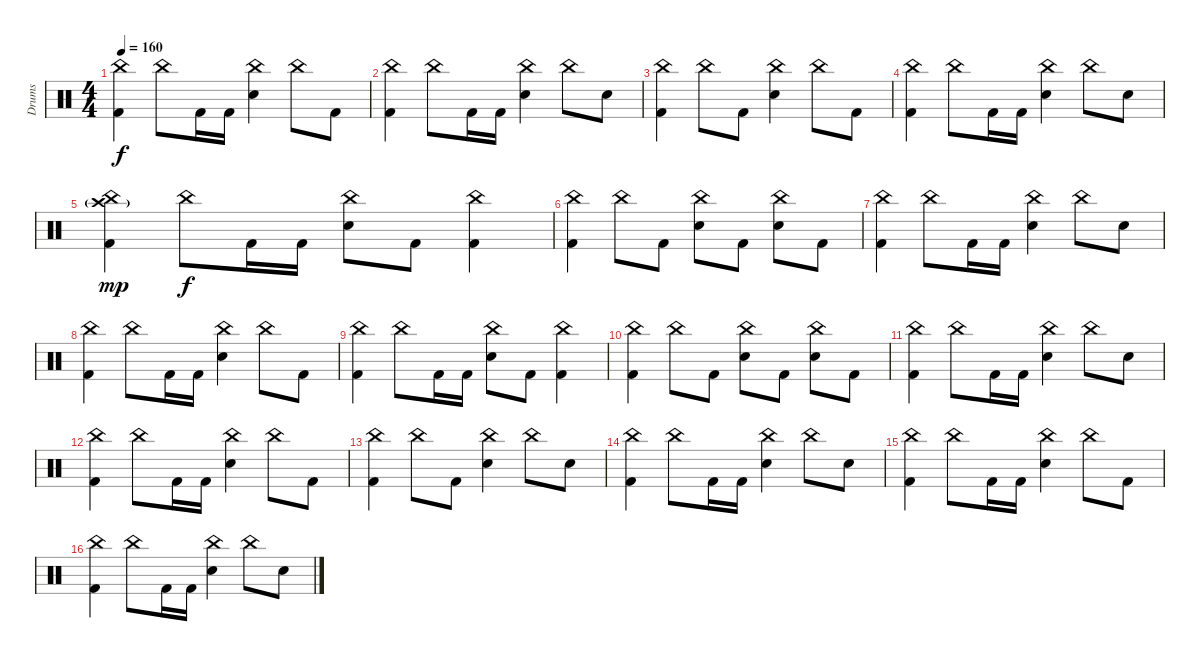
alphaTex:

\track ("Drums" "Drums") {instrument percussion}
\staff {score}
\articulation defaults
\ts (4 4)
\tempo 160
\clef neutral
\ks c
("China (hit)" "Kick (hit) 2").4{dy f} "China (hit)".8 "Kick (hit) 2".16 "Kick (hit) 2".16 ("China (hit)" "Electric Snare (hit)").4 "China (hit)".8 "Kick (hit) 2".8 |
("China (hit)" "Kick (hit) 2").4 "China (hit)".8 "Kick (hit) 2".16 "Kick (hit) 2".16 ("China (hit)" "Electric Snare (hit)").4 "China (hit)".8 "Electric Snare (hit)".8 |
("China (hit)" "Kick (hit) 2").4 "China (hit)".8 "Kick (hit) 2".8 ("China (hit)" "Electric Snare (hit)").4 "China (hit)".8 "Kick (hit) 2".8 |
("China (hit)" "Kick (hit) 2").4 "China (hit)".8 "Kick (hit) 2".16 "Kick (hit) 2".16 ("China (hit)" "Electric Snare (hit)").4 "China (hit)".8 "Electric Snare (hit)".8 |
("China (hit)" "Crash high (hit)"{g} "Kick (hit) 2").4{dy mp} "China (hit)".8{dy f} "Kick (hit) 2".16 "Kick (hit) 2".16 ("China (hit)" "Electric Snare (hit)").8 "Kick (hit) 2".8 ("China (hit)" "Kick (hit) 2").4 |
("China (hit)" "Kick (hit) 2").4 "China (hit)".8 "Kick (hit) 2".8 ("China (hit)" "Electric Snare (hit)").8 "Kick (hit) 2".8 ("China (hit)" "Electric Snare (hit)").8 "Kick (hit) 2".8 |
("China (hit)" "Kick (hit) 2").4 "China (hit)".8 "Kick (hit) 2".16 "Kick (hit) 2".16 ("China (hit)" "Electric Snare (hit)").4 "China (hit)".8 "Electric Snare (hit)".8 |
("China (hit)" "Kick (hit) 2").4 "China (hit)".8 "Kick (hit) 2".16 "Kick (hit) 2".16 ("China (hit)" "Electric Snare (hit)").4 "China (hit)".8 "Kick (hit) 2".8 |
("China (hit)" "Kick (hit) 2").4 "China (hit)".8 "Kick (hit) 2".16 "Kick (hit) 2".16 ("China (hit)" "Electric Snare (hit)").8 "Kick (hit) 2".8 ("China (hit)" "Kick (hit) 2").4 |
("China (hit)" "Kick (hit) 2").4 "China (hit)".8 "Kick (hit) 2".8 ("China (hit)" "Electric Snare (hit)").8 "Kick (hit) 2".8 ("China (hit)" "Electric Snare (hit)").8 "Kick (hit) 2".8 |
("China (hit)" "Kick (hit) 2").4 "China (hit)".8 "Kick (hit) 2".16 "Kick (hit) 2".16 ("China (hit)" "Electric Snare (hit)").4 "China (hit)".8 "Electric Snare (hit)".8 |
("China (hit)" "Kick (hit) 2").4 "China (hit)".8 "Kick (hit) 2".16 "Kick (hit) 2".16 ("China (hit)" "Electric Snare (hit)").4 "China (hit)".8 "Kick (hit) 2".8 |
("China (hit)" "Kick (hit) 2").4 "China (hit)".8 "Kick (hit) 2".8 ("China (hit)" "Electric Snare (hit)").4 "China (hit)".8 "Electric Snare (hit)".8 |
("China (hit)" "Kick (hit) 2").4 "China (hit)".8 "Kick (hit) 2".16 "Kick (hit) 2".16 ("China (hit)" "Electric Snare (hit)").4 "China (hit)".8 "Electric Snare (hit)".8 |
("China (hit)" "Kick (hit) 2").4 "China (hit)".8 "Kick (hit) 2".16 "Kick (hit) 2".16 ("China (hit)" "Electric Snare (hit)").4 "China (hit)".8 "Kick (hit) 2".8 |
("China (hit)" "Kick (hit) 2").4 "China (hit)".8 "Kick (hit) 2".16 "Kick (hit) 2".16 ("China (hit)" "Electric Snare (hit)").4 "China (hit)".8 "Electric Snare (hit)".8
